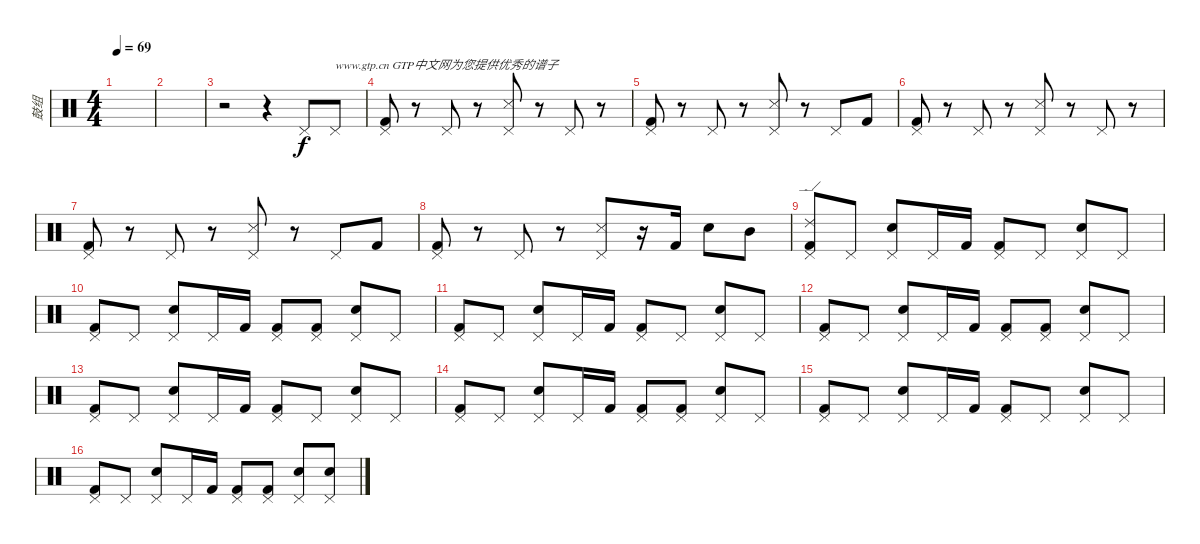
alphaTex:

\track ("鼓组" "鼓组") {instrument percussion}
\staff {score}
\articulation defaults
\ts (4 4)
\tempo 69
\clef neutral
\ks c
|
|
r.2 r.4 "Pedal Hi-Hat (hit)".8 "Pedal Hi-Hat (hit)".8{txt "www.gtp.cn GTP中文网为您提供优秀的谱子"} |
("Kick (hit) 2" "Pedal Hi-Hat (hit)").8 r.8 "Pedal Hi-Hat (hit)".8 r.8 ("Metronome (hit)" "Pedal Hi-Hat (hit)").8 r.8 "Pedal Hi-Hat (hit)".8 r.8 |
("Kick (hit) 2" "Pedal Hi-Hat (hit)").8 r.8 "Pedal Hi-Hat (hit)".8 r.8 ("Metronome (hit)" "Pedal Hi-Hat (hit)").8 r.8 "Pedal Hi-Hat (hit)".8 "Kick (hit) 2".8 |
("Kick (hit) 2" "Pedal Hi-Hat (hit)").8 r.8 "Pedal Hi-Hat (hit)".8 r.8 ("Metronome (hit)" "Pedal Hi-Hat (hit)").8 r.8 "Pedal Hi-Hat (hit)".8 r.8 |
("Kick (hit) 2" "Pedal Hi-Hat (hit)").8 r.8 "Pedal Hi-Hat (hit)".8 r.8 ("Metronome (hit)" "Pedal Hi-Hat (hit)").8 r.8 "Pedal Hi-Hat (hit)".8 "Kick (hit) 2".8 |
("Kick (hit) 2" "Pedal Hi-Hat (hit)").8 r.8 "Pedal Hi-Hat (hit)".8 r.8 ("Metronome (hit)" "Pedal Hi-Hat (hit)").8 r.16 "Kick (hit) 2".16 "Snare (hit) 2".8 "Mid Tom (hit)".8 |
("Ride (edge) 2" "Kick (hit) 2" "Pedal Hi-Hat (hit)").8 "Pedal Hi-Hat (hit)".8 ("Snare (hit) 2" "Pedal Hi-Hat (hit)").8 "Pedal Hi-Hat (hit)".16 "Kick (hit) 2".16 ("Kick (hit) 2" "Pedal Hi-Hat (hit)").8 "Pedal Hi-Hat (hit)".8 ("Snare (hit) 2" "Pedal Hi-Hat (hit)").8 "Pedal Hi-Hat (hit)".8 |
("Kick (hit) 2" "Pedal Hi-Hat (hit)").8 "Pedal Hi-Hat (hit)".8 ("Snare (hit) 2" "Pedal Hi-Hat (hit)").8 "Pedal Hi-Hat (hit)".16 "Kick (hit) 2".16 ("Kick (hit) 2" "Pedal Hi-Hat (hit)").8 ("Kick (hit) 2" "Pedal Hi-Hat (hit)").8 ("Snare (hit) 2" "Pedal Hi-Hat (hit)").8 "Pedal Hi-Hat (hit)".8 |
("Kick (hit) 2" "Pedal Hi-Hat (hit)").8 "Pedal Hi-Hat (hit)".8 ("Snare (hit) 2" "Pedal Hi-Hat (hit)").8 "Pedal Hi-Hat (hit)".16 "Kick (hit) 2".16 ("Kick (hit) 2" "Pedal Hi-Hat (hit)").8 "Pedal Hi-Hat (hit)".8 ("Snare (hit) 2" "Pedal Hi-Hat (hit)").8 "Pedal Hi-Hat (hit)".8 |
("Kick (hit) 2" "Pedal Hi-Hat (hit)").8 "Pedal Hi-Hat (hit)".8 ("Snare (hit) 2" "Pedal Hi-Hat (hit)").8 "Pedal Hi-Hat (hit)".16 "Kick (hit) 2".16 ("Kick (hit) 2" "Pedal Hi-Hat (hit)").8 ("Kick (hit) 2" "Pedal Hi-Hat (hit)").8 ("Snare (hit) 2" "Pedal Hi-Hat (hit)").8 "Pedal Hi-Hat (hit)".8 |
("Kick (hit) 2" "Pedal Hi-Hat (hit)").8 "Pedal Hi-Hat (hit)".8 ("Snare (hit) 2" "Pedal Hi-Hat (hit)").8 "Pedal Hi-Hat (hit)".16 "Kick (hit) 2".16 ("Kick (hit) 2" "Pedal Hi-Hat (hit)").8 "Pedal Hi-Hat (hit)".8 ("Snare (hit) 2" "Pedal Hi-Hat (hit)").8 "Pedal Hi-Hat (hit)".8 |
("Kick (hit) 2" "Pedal Hi-Hat (hit)").8 "Pedal Hi-Hat (hit)".8 ("Snare (hit) 2" "Pedal Hi-Hat (hit)").8 "Pedal Hi-Hat (hit)".16 "Kick (hit) 2".16 ("Kick (hit) 2" "Pedal Hi-Hat (hit)").8 ("Kick (hit) 2" "Pedal Hi-Hat (hit)").8 ("Snare (hit) 2" "Pedal Hi-Hat (hit)").8 "Pedal Hi-Hat (hit)".8 |
("Kick (hit) 2" "Pedal Hi-Hat (hit)").8 "Pedal Hi-Hat (hit)".8 ("Snare (hit) 2" "Pedal Hi-Hat (hit)").8 "Pedal Hi-Hat (hit)".16 "Kick (hit) 2".16 ("Kick (hit) 2" "Pedal Hi-Hat (hit)").8 "Pedal Hi-Hat (hit)".8 ("Snare (hit) 2" "Pedal Hi-Hat (hit)").8 "Pedal Hi-Hat (hit)".8 |
("Kick (hit) 2" "Pedal Hi-Hat (hit)").8 "Pedal Hi-Hat (hit)".8 ("Snare (hit) 2" "Pedal Hi-Hat (hit)").8 "Pedal Hi-Hat (hit)".16 "Kick (hit) 2".16 ("Kick (hit) 2" "Pedal Hi-Hat (hit)").8 ("Kick (hit) 2" "Pedal Hi-Hat (hit)").8 ("Snare (hit) 2" "Pedal Hi-Hat (hit)").8 ("Snare (hit) 2" "Pedal Hi-Hat (hit)").8
